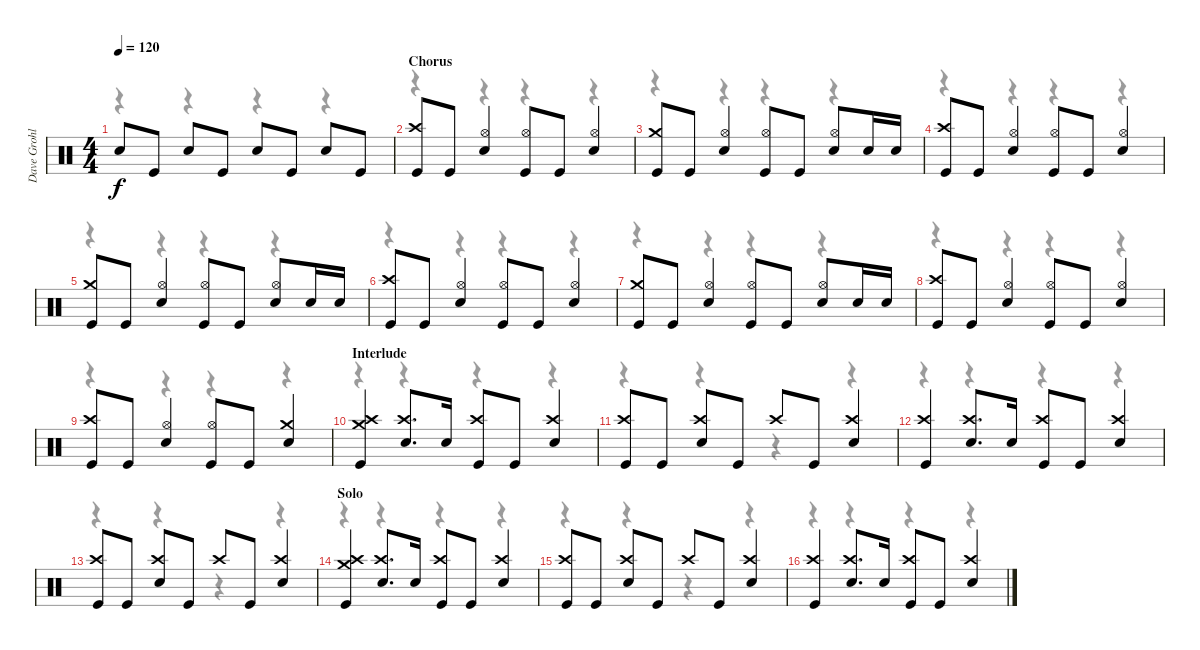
\track ("Dave Grohl" "Dave Grohl") {instrument percussion}
\staff {score}
\articulation defaults
\voice
\ts (4 4)
\tempo 120
\clef neutral
\ks c "Snare (hit) 2".8{dy f} "Kick (hit)".8 "Snare (hit) 2".8 "Kick (hit)".8 "Snare (hit) 2".8 "Kick (hit)".8 "Snare (hit) 2".8 "Kick (hit)".8
|
\section ("" "Chorus")
("Crash high (hit)" "Kick (hit)").8 "Kick (hit)".8 ("Hi-Hat (open)" "Snare (hit) 2").4 ("Hi-Hat (open)" "Kick (hit)").8 "Kick (hit)".8 ("Hi-Hat (open)" "Snare (hit) 2").4 |
("Crash medium (hit)" "Kick (hit)").8 "Kick (hit)".8 ("Hi-Hat (open)" "Snare (hit) 2").4 ("Hi-Hat (open)" "Kick (hit)").8 "Kick (hit)".8 ("Hi-Hat (open)" "Snare (hit) 2").8 "Snare (hit) 2".16 "Snare (hit) 2".16 |
("Crash high (hit)" "Kick (hit)").8 "Kick (hit)".8 ("Hi-Hat (open)" "Snare (hit) 2").4 ("Hi-Hat (open)" "Kick (hit)").8 "Kick (hit)".8 ("Hi-Hat (open)" "Snare (hit) 2").4 |
("Crash medium (hit)" "Kick (hit)").8 "Kick (hit)".8 ("Hi-Hat (open)" "Snare (hit) 2").4 ("Hi-Hat (open)" "Kick (hit)").8 "Kick (hit)".8 ("Hi-Hat (open)" "Snare (hit) 2").8 "Snare (hit) 2".16 "Snare (hit) 2".16 |
("Crash high (hit)" "Kick (hit)").8 "Kick (hit)".8 ("Hi-Hat (open)" "Snare (hit) 2").4 ("Hi-Hat (open)" "Kick (hit)").8 "Kick (hit)".8 ("Hi-Hat (open)" "Snare (hit) 2").4 |
("Crash medium (hit)" "Kick (hit)").8 "Kick (hit)".8 ("Hi-Hat (open)" "Snare (hit) 2").4 ("Hi-Hat (open)" "Kick (hit)").8 "Kick (hit)".8 ("Hi-Hat (open)" "Snare (hit) 2").8 "Snare (hit) 2".16 "Snare (hit) 2".16 |
("Crash high (hit)" "Kick (hit)").8 "Kick (hit)".8 ("Hi-Hat (open)" "Snare (hit) 2").4 ("Hi-Hat (open)" "Kick (hit)").8 "Kick (hit)".8 ("Hi-Hat (open)" "Snare (hit) 2").4 |
("Crash high (hit)" "Kick (hit)").8 "Kick (hit)".8 ("Hi-Hat (open)" "Snare (hit) 2").4 ("Hi-Hat (open)" "Kick (hit)").8 "Kick (hit)".8 ("Crash medium (hit)" "Snare (hit) 2").4 |
\section ("" "Interlude")
("Crash medium (hit)" "Crash high (hit)" "Kick (hit)").4 ("Crash high (hit)" "Snare (hit) 2").8{d} "Snare (hit) 2".16 ("Crash high (hit)" "Kick (hit)").8 "Kick (hit)".8 ("Crash high (hit)" "Snare (hit) 2").4 |
("Crash high (hit)" "Kick (hit)").8 "Kick (hit)".8 ("Crash high (hit)" "Snare (hit) 2").8 "Kick (hit)".8 "Crash high (hit)".8 "Kick (hit)".8 ("Crash high (hit)" "Snare (hit) 2").4 |
("Crash high (hit)" "Kick (hit)").4 ("Crash high (hit)" "Snare (hit) 2").8{d} "Snare (hit) 2".16 ("Crash high (hit)" "Kick (hit)").8 "Kick (hit)".8 ("Crash high (hit)" "Snare (hit) 2").4 |
("Crash high (hit)" "Kick (hit)").8 "Kick (hit)".8 ("Crash high (hit)" "Snare (hit) 2").8 "Kick (hit)".8 "Crash high (hit)".8 "Kick (hit)".8 ("Crash high (hit)" "Snare (hit) 2").4 |
\section ("" "Solo")
("Crash medium (hit)" "Crash high (hit)" "Kick (hit)").4 ("Crash high (hit)" "Snare (hit) 2").8{d} "Snare (hit) 2".16 ("Crash high (hit)" "Kick (hit)").8 "Kick (hit)".8 ("Crash high (hit)" "Snare (hit) 2").4 |
("Crash high (hit)" "Kick (hit)").8 "Kick (hit)".8 ("Crash high (hit)" "Snare (hit) 2").8 "Kick (hit)".8 "Crash high (hit)".8 "Kick (hit)".8 ("Crash high (hit)" "Snare (hit) 2").4 |
("Crash high (hit)" "Kick (hit)").4 ("Crash high (hit)" "Snare (hit) 2").8{d} "Snare (hit) 2".16 ("Crash high (hit)" "Kick (hit)").8 "Kick (hit)".8 ("Crash high (hit)" "Snare (hit) 2").4
\voice
\clef neutral
\ottava regular
\simile none
\ks c
r.4{dy f} r.4 r.4 r.4 |
r.4 r.4 r.4 r.4 |
r.4 r.4 r.4 r.4 |
r.4 r.4 r.4 r.4 |
r.4 r.4 r.4 r.4 |
r.4 r.4 r.4 r.4 |
r.4 r.4 r.4 r.4 |
r.4 r.4 r.4 r.4 |
r.4 r.4 r.4 r.4 |
r.4 r.4 r.4 r.4 |
r.4 r.4 r.4 r.4 |
r.4 r.4 r.4 r.4 |
r.4 r.4 r.4 r.4 |
r.4 r.4 r.4 r.4 |
r.4 r.4 r.4 r.4 |
r.4 r.4 r.4 r.4
